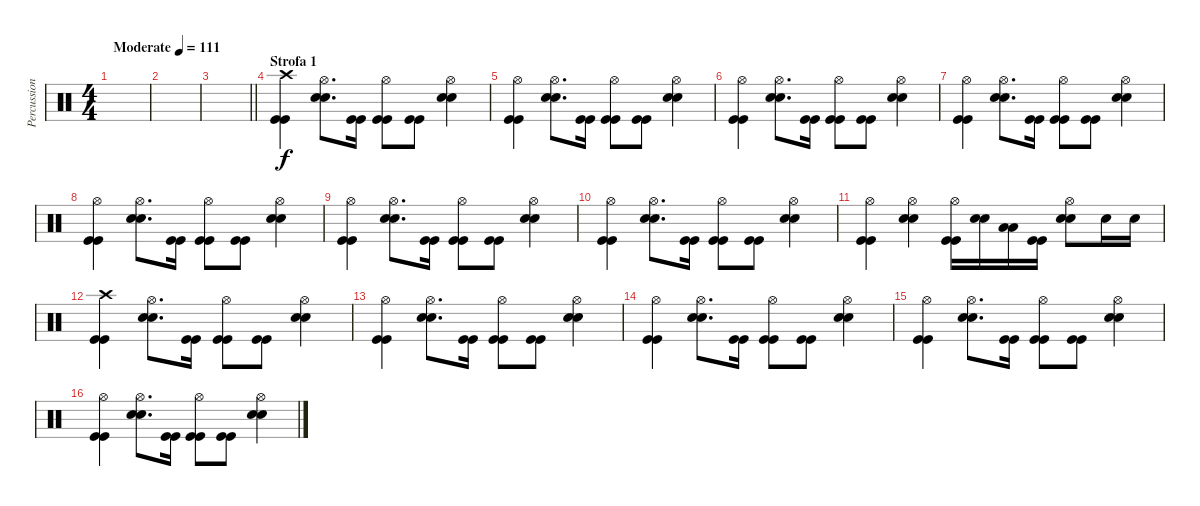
\track ("Percussioni" "Percussion") {instrument percussion}
\staff {score}
\articulation defaults
\ts (4 4)
\tempo (111 "Moderate")
\clef neutral
\ks c
|
|
\barLineRight lightlight
|
\section ("" "Strofa 1")
("Crash high (hit)" "Kick (hit)" "Kick (hit)").4 ("Hi-Hat (open)" "Snare (hit) 2" "Snare (hit) 2").8{d} ("Kick (hit)" "Kick (hit)").16 ("Hi-Hat (open)" "Kick (hit)" "Kick (hit)").8 ("Kick (hit)" "Kick (hit)").8 ("Hi-Hat (open)" "Snare (hit) 2" "Snare (hit) 2").4 |
("Hi-Hat (open)" "Kick (hit)" "Kick (hit)").4 ("Hi-Hat (open)" "Snare (hit) 2" "Snare (hit) 2").8{d} ("Kick (hit)" "Kick (hit)").16 ("Hi-Hat (open)" "Kick (hit)" "Kick (hit)").8 ("Kick (hit)" "Kick (hit)").8 ("Hi-Hat (open)" "Snare (hit) 2" "Snare (hit) 2").4 |
("Hi-Hat (open)" "Kick (hit)" "Kick (hit)").4 ("Hi-Hat (open)" "Snare (hit) 2" "Snare (hit) 2").8{d} ("Kick (hit)" "Kick (hit)").16 ("Hi-Hat (open)" "Kick (hit)" "Kick (hit)").8 ("Kick (hit)" "Kick (hit)").8 ("Hi-Hat (open)" "Snare (hit) 2" "Snare (hit) 2").4 |
("Hi-Hat (open)" "Kick (hit)" "Kick (hit)").4 ("Hi-Hat (open)" "Snare (hit) 2" "Snare (hit) 2").8{d} ("Kick (hit)" "Kick (hit)").16 ("Hi-Hat (open)" "Kick (hit)" "Kick (hit)").8 ("Kick (hit)" "Kick (hit)").8 ("Hi-Hat (open)" "Snare (hit) 2" "Snare (hit) 2").4 |
("Hi-Hat (open)" "Kick (hit)" "Kick (hit)").4 ("Hi-Hat (open)" "Snare (hit) 2" "Snare (hit) 2").8{d} ("Kick (hit)" "Kick (hit)").16 ("Hi-Hat (open)" "Kick (hit)" "Kick (hit)").8 ("Kick (hit)" "Kick (hit)").8 ("Hi-Hat (open)" "Snare (hit) 2" "Snare (hit) 2").4 |
("Hi-Hat (open)" "Kick (hit)" "Kick (hit)").4 ("Hi-Hat (open)" "Snare (hit) 2" "Snare (hit) 2").8{d} ("Kick (hit)" "Kick (hit)").16 ("Hi-Hat (open)" "Kick (hit)" "Kick (hit)").8 ("Kick (hit)" "Kick (hit)").8 ("Hi-Hat (open)" "Snare (hit) 2" "Snare (hit) 2").4 |
("Hi-Hat (open)" "Kick (hit)" "Kick (hit)").4 ("Hi-Hat (open)" "Snare (hit) 2" "Snare (hit) 2").8{d} ("Kick (hit)" "Kick (hit)").16 ("Hi-Hat (open)" "Kick (hit)" "Kick (hit)").8 ("Kick (hit)" "Kick (hit)").8 ("Hi-Hat (open)" "Snare (hit) 2" "Snare (hit) 2").4 |
("Hi-Hat (open)" "Kick (hit)" "Kick (hit)").4 ("Hi-Hat (open)" "Snare (hit) 2" "Snare (hit) 2").4 ("Hi-Hat (open)" "Kick (hit)" "Kick (hit)").16 ("Snare (hit) 2" "Snare (hit) 2").16 ("Low Tom (hit)" "Low Tom (hit)").16 ("Kick (hit)" "Kick (hit)").16 ("Hi-Hat (open)" "Snare (hit) 2" "Snare (hit) 2").8 "Snare (hit) 2".16 "Snare (hit) 2".16 |
("Crash high (hit)" "Kick (hit)" "Kick (hit)").4 ("Hi-Hat (open)" "Snare (hit) 2" "Snare (hit) 2").8{d} ("Kick (hit)" "Kick (hit)").16 ("Hi-Hat (open)" "Kick (hit)" "Kick (hit)").8 ("Kick (hit)" "Kick (hit)").8 ("Hi-Hat (open)" "Snare (hit) 2" "Snare (hit) 2").4 |
("Hi-Hat (open)" "Kick (hit)" "Kick (hit)").4 ("Hi-Hat (open)" "Snare (hit) 2" "Snare (hit) 2").8{d} ("Kick (hit)" "Kick (hit)").16 ("Hi-Hat (open)" "Kick (hit)" "Kick (hit)").8 ("Kick (hit)" "Kick (hit)").8 ("Hi-Hat (open)" "Snare (hit) 2" "Snare (hit) 2").4 |
("Hi-Hat (open)" "Kick (hit)" "Kick (hit)").4 ("Hi-Hat (open)" "Snare (hit) 2" "Snare (hit) 2").8{d} ("Kick (hit)" "Kick (hit)").16 ("Hi-Hat (open)" "Kick (hit)" "Kick (hit)").8 ("Kick (hit)" "Kick (hit)").8 ("Hi-Hat (open)" "Snare (hit) 2" "Snare (hit) 2").4 |
("Hi-Hat (open)" "Kick (hit)" "Kick (hit)").4 ("Hi-Hat (open)" "Snare (hit) 2" "Snare (hit) 2").8{d} ("Kick (hit)" "Kick (hit)").16 ("Hi-Hat (open)" "Kick (hit)" "Kick (hit)").8 ("Kick (hit)" "Kick (hit)").8 ("Hi-Hat (open)" "Snare (hit) 2" "Snare (hit) 2").4 |
("Hi-Hat (open)" "Kick (hit)" "Kick (hit)").4 ("Hi-Hat (open)" "Snare (hit) 2" "Snare (hit) 2").8{d} ("Kick (hit)" "Kick (hit)").16 ("Hi-Hat (open)" "Kick (hit)" "Kick (hit)").8 ("Kick (hit)" "Kick (hit)").8 ("Hi-Hat (open)" "Snare (hit) 2" "Snare (hit) 2").4
